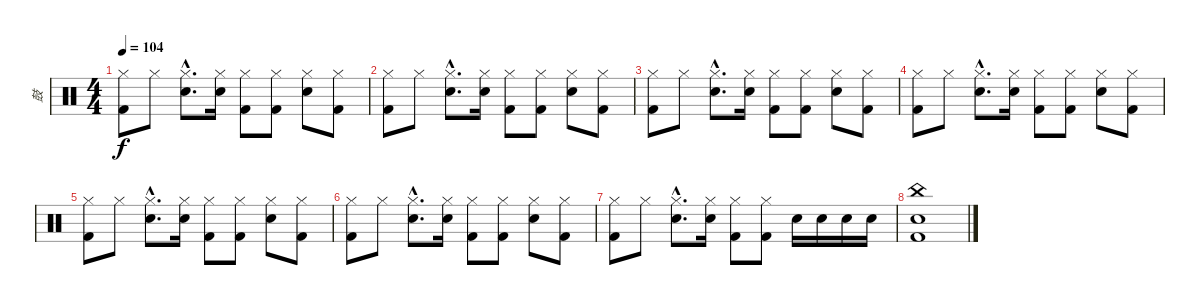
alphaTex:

\track ("鼓" "鼓") {instrument percussion}
\staff {score}
\articulation defaults
\ts (4 4)
\tempo 104
\clef neutral
\ks c
("Hi-Hat (closed)" "Kick (hit) 2").8{dy f} "Hi-Hat (closed)".8 ("Hi-Hat (closed)"{hac} "Snare (hit) 2"{hac}).8{d} ("Hi-Hat (closed)" "Snare (hit) 2").16 ("Hi-Hat (closed)" "Kick (hit) 2").8 ("Hi-Hat (closed)" "Kick (hit) 2").8 ("Hi-Hat (closed)" "Snare (hit) 2").8 ("Hi-Hat (closed)" "Kick (hit) 2").8 |
("Hi-Hat (closed)" "Kick (hit) 2").8 "Hi-Hat (closed)".8 ("Hi-Hat (closed)"{hac} "Snare (hit) 2"{hac}).8{d} ("Hi-Hat (closed)" "Snare (hit) 2").16 ("Hi-Hat (closed)" "Kick (hit) 2").8 ("Hi-Hat (closed)" "Kick (hit) 2").8 ("Hi-Hat (closed)" "Snare (hit) 2").8 ("Hi-Hat (closed)" "Kick (hit) 2").8 |
("Hi-Hat (closed)" "Kick (hit) 2").8 "Hi-Hat (closed)".8 ("Hi-Hat (closed)"{hac} "Snare (hit) 2"{hac}).8{d} ("Hi-Hat (closed)" "Snare (hit) 2").16 ("Hi-Hat (closed)" "Kick (hit) 2").8 ("Hi-Hat (closed)" "Kick (hit) 2").8 ("Hi-Hat (closed)" "Snare (hit) 2").8 ("Hi-Hat (closed)" "Kick (hit) 2").8 |
("Hi-Hat (closed)" "Kick (hit) 2").8 "Hi-Hat (closed)".8 ("Hi-Hat (closed)"{hac} "Snare (hit) 2"{hac}).8{d} ("Hi-Hat (closed)" "Snare (hit) 2").16 ("Hi-Hat (closed)" "Kick (hit) 2").8 ("Hi-Hat (closed)" "Kick (hit) 2").8 ("Hi-Hat (closed)" "Snare (hit) 2").8 ("Hi-Hat (closed)" "Kick (hit) 2").8 |
("Hi-Hat (closed)" "Kick (hit) 2").8 "Hi-Hat (closed)".8 ("Hi-Hat (closed)"{hac} "Snare (hit) 2"{hac}).8{d} ("Hi-Hat (closed)" "Snare (hit) 2").16 ("Hi-Hat (closed)" "Kick (hit) 2").8 ("Hi-Hat (closed)" "Kick (hit) 2").8 ("Hi-Hat (closed)" "Snare (hit) 2").8 ("Hi-Hat (closed)" "Kick (hit) 2").8 |
("Hi-Hat (closed)" "Kick (hit) 2").8 "Hi-Hat (closed)".8 ("Hi-Hat (closed)"{hac} "Snare (hit) 2"{hac}).8{d} ("Hi-Hat (closed)" "Snare (hit) 2").16 ("Hi-Hat (closed)" "Kick (hit) 2").8 ("Hi-Hat (closed)" "Kick (hit) 2").8 ("Hi-Hat (closed)" "Snare (hit) 2").8 ("Hi-Hat (closed)" "Kick (hit) 2").8 |
("Hi-Hat (closed)" "Kick (hit) 2").8 "Hi-Hat (closed)".8 ("Hi-Hat (closed)"{hac} "Snare (hit) 2"{hac}).8{d} ("Hi-Hat (closed)" "Snare (hit) 2").16 ("Hi-Hat (closed)" "Kick (hit) 2").8 ("Hi-Hat (closed)" "Kick (hit) 2").8 "Snare (hit) 2".16 "Snare (hit) 2".16 "Snare (hit) 2".16 "Snare (hit) 2".16 |
("China (hit)" "Snare (hit) 2" "Kick (hit) 2").1
